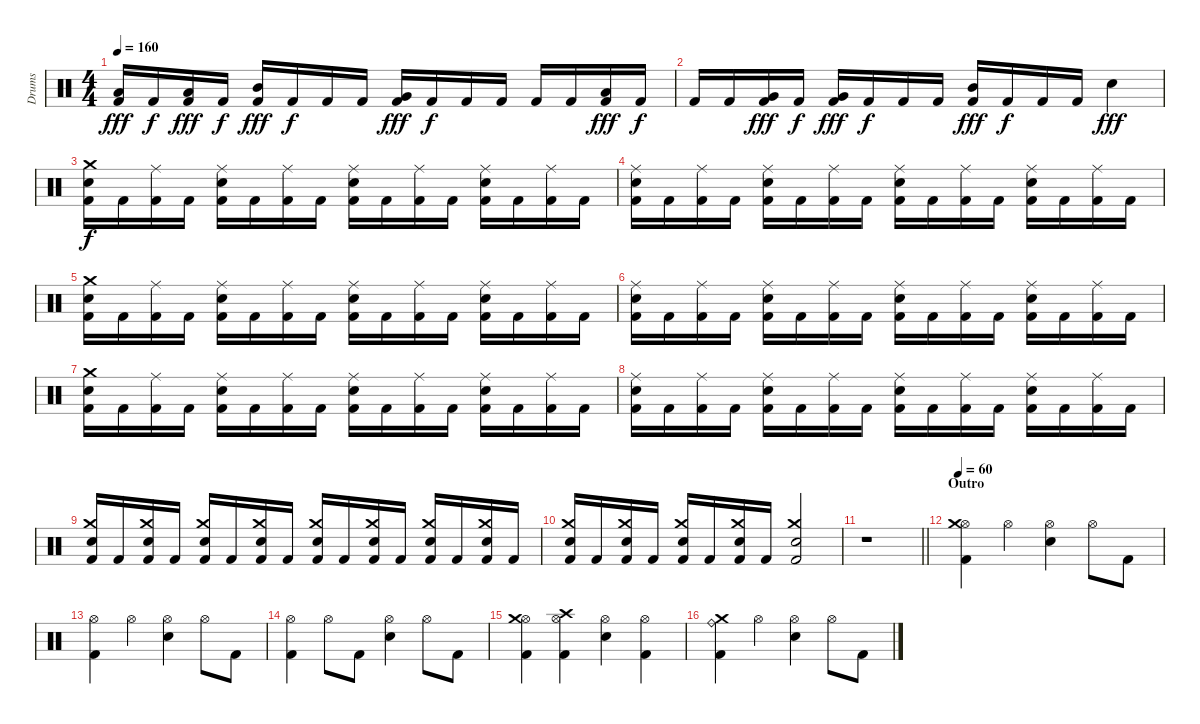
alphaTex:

\track ("Drums" "Drums") {instrument percussion}
\staff {score}
\articulation defaults
\ts (4 4)
\tempo 160
\clef neutral
\ks c
("Kick (hit) 2" "Low Tom (hit)").16{dy fff} "Kick (hit) 2".16{dy f} ("Kick (hit) 2" "Low Tom (hit)").16{dy fff} "Kick (hit) 2".16{dy f} ("Kick (hit) 2" "Mid Tom (hit)").16{dy fff} "Kick (hit) 2".16{dy f} "Kick (hit) 2".16 "Kick (hit) 2".16 ("Kick (hit) 2" "Very Low Tom (hit)").16{dy fff} "Kick (hit) 2".16{dy f} "Kick (hit) 2".16 "Kick (hit) 2".16 "Kick (hit) 2".16 "Kick (hit) 2".16 ("Kick (hit) 2" "Low Tom (hit)").16{dy fff} "Kick (hit) 2".16{dy f} |
"Kick (hit) 2".16 "Kick (hit) 2".16 ("Kick (hit) 2" "Very Low Tom (hit)").16{dy fff} "Kick (hit) 2".16{dy f} ("Kick (hit) 2" "Very Low Tom (hit)").16{dy fff} "Kick (hit) 2".16{dy f} "Kick (hit) 2".16 "Kick (hit) 2".16 ("Kick (hit) 2" "Mid Tom (hit)").16{dy fff} "Kick (hit) 2".16{dy f} "Kick (hit) 2".16 "Kick (hit) 2".16 "Electric Snare (hit)".4{dy fff} |
("Kick (hit) 2" "Electric Snare (hit)" "Crash medium (hit)").16{dy f} "Kick (hit) 2".16 ("Kick (hit) 2" "Ride (middle)").16 "Kick (hit) 2".16 ("Kick (hit) 2" "Electric Snare (hit)" "Ride (middle)").16 "Kick (hit) 2".16 ("Kick (hit) 2" "Ride (middle)").16 "Kick (hit) 2".16 ("Kick (hit) 2" "Electric Snare (hit)" "Ride (middle)").16 "Kick (hit) 2".16 ("Kick (hit) 2" "Ride (middle)").16 "Kick (hit) 2".16 ("Kick (hit) 2" "Electric Snare (hit)" "Ride (middle)").16 "Kick (hit) 2".16 ("Kick (hit) 2" "Ride (middle)").16 "Kick (hit) 2".16 |
("Kick (hit) 2" "Electric Snare (hit)" "Ride (middle)").16 "Kick (hit) 2".16 ("Kick (hit) 2" "Ride (middle)").16 "Kick (hit) 2".16 ("Kick (hit) 2" "Electric Snare (hit)" "Ride (middle)").16 "Kick (hit) 2".16 ("Kick (hit) 2" "Ride (middle)").16 "Kick (hit) 2".16 ("Kick (hit) 2" "Electric Snare (hit)" "Ride (middle)").16 "Kick (hit) 2".16 ("Kick (hit) 2" "Ride (middle)").16 "Kick (hit) 2".16 ("Kick (hit) 2" "Electric Snare (hit)" "Ride (middle)").16 "Kick (hit) 2".16 ("Kick (hit) 2" "Ride (middle)").16 "Kick (hit) 2".16 |
("Kick (hit) 2" "Electric Snare (hit)" "Crash medium (hit)").16 "Kick (hit) 2".16 ("Kick (hit) 2" "Ride (middle)").16 "Kick (hit) 2".16 ("Kick (hit) 2" "Electric Snare (hit)" "Ride (middle)").16 "Kick (hit) 2".16 ("Kick (hit) 2" "Ride (middle)").16 "Kick (hit) 2".16 ("Kick (hit) 2" "Electric Snare (hit)" "Ride (middle)").16 "Kick (hit) 2".16 ("Kick (hit) 2" "Ride (middle)").16 "Kick (hit) 2".16 ("Kick (hit) 2" "Electric Snare (hit)" "Ride (middle)").16 "Kick (hit) 2".16 ("Kick (hit) 2" "Ride (middle)").16 "Kick (hit) 2".16 |
("Kick (hit) 2" "Electric Snare (hit)" "Ride (middle)").16 "Kick (hit) 2".16 ("Kick (hit) 2" "Ride (middle)").16 "Kick (hit) 2".16 ("Kick (hit) 2" "Electric Snare (hit)" "Ride (middle)").16 "Kick (hit) 2".16 ("Kick (hit) 2" "Ride (middle)").16 "Kick (hit) 2".16 ("Kick (hit) 2" "Electric Snare (hit)" "Ride (middle)").16 "Kick (hit) 2".16 ("Kick (hit) 2" "Ride (middle)").16 "Kick (hit) 2".16 ("Kick (hit) 2" "Electric Snare (hit)" "Ride (middle)").16 "Kick (hit) 2".16 ("Kick (hit) 2" "Ride (middle)").16 "Kick (hit) 2".16 |
("Kick (hit) 2" "Electric Snare (hit)" "Crash medium (hit)").16 "Kick (hit) 2".16 ("Kick (hit) 2" "Ride (middle)").16 "Kick (hit) 2".16 ("Kick (hit) 2" "Electric Snare (hit)" "Ride (middle)").16 "Kick (hit) 2".16 ("Kick (hit) 2" "Ride (middle)").16 "Kick (hit) 2".16 ("Kick (hit) 2" "Electric Snare (hit)" "Ride (middle)").16 "Kick (hit) 2".16 ("Kick (hit) 2" "Ride (middle)").16 "Kick (hit) 2".16 ("Kick (hit) 2" "Electric Snare (hit)" "Ride (middle)").16 "Kick (hit) 2".16 ("Kick (hit) 2" "Ride (middle)").16 "Kick (hit) 2".16 |
("Kick (hit) 2" "Electric Snare (hit)" "Ride (middle)").16 "Kick (hit) 2".16 ("Kick (hit) 2" "Ride (middle)").16 "Kick (hit) 2".16 ("Kick (hit) 2" "Electric Snare (hit)" "Ride (middle)").16 "Kick (hit) 2".16 ("Kick (hit) 2" "Ride (middle)").16 "Kick (hit) 2".16 ("Kick (hit) 2" "Electric Snare (hit)" "Ride (middle)").16 "Kick (hit) 2".16 ("Kick (hit) 2" "Ride (middle)").16 "Kick (hit) 2".16 ("Kick (hit) 2" "Electric Snare (hit)" "Ride (middle)").16 "Kick (hit) 2".16 ("Kick (hit) 2" "Ride (middle)").16 "Kick (hit) 2".16 |
("Kick (hit) 2" "Snare (hit) 2" "Crash medium (hit)").16 "Kick (hit) 2".16 ("Kick (hit) 2" "Snare (hit) 2" "Crash medium (hit)").16 "Kick (hit) 2".16 ("Kick (hit) 2" "Snare (hit) 2" "Crash medium (hit)").16 "Kick (hit) 2".16 ("Kick (hit) 2" "Snare (hit) 2" "Crash medium (hit)").16 "Kick (hit) 2".16 ("Kick (hit) 2" "Snare (hit) 2" "Crash medium (hit)").16 "Kick (hit) 2".16 ("Kick (hit) 2" "Snare (hit) 2" "Crash medium (hit)").16 "Kick (hit) 2".16 ("Kick (hit) 2" "Snare (hit) 2" "Crash medium (hit)").16 "Kick (hit) 2".16 ("Kick (hit) 2" "Snare (hit) 2" "Crash medium (hit)").16 "Kick (hit) 2".16 |
("Kick (hit) 2" "Snare (hit) 2" "Crash medium (hit)").16 "Kick (hit) 2".16 ("Kick (hit) 2" "Snare (hit) 2" "Crash medium (hit)").16 "Kick (hit) 2".16 ("Kick (hit) 2" "Snare (hit) 2" "Crash medium (hit)").16 "Kick (hit) 2".16 ("Kick (hit) 2" "Snare (hit) 2" "Crash medium (hit)").16 "Kick (hit) 2".16 ("Kick (hit) 2" "Snare (hit) 2" "Crash medium (hit)").2 |
\barLineRight lightlight
r.1 |
\section ("" "Outro")
\tempo 60
("Kick (hit) 2" "Hi-Hat (open)" "Crash medium (hit)").4 "Hi-Hat (open)".4 ("Electric Snare (hit)" "Hi-Hat (open)").4 "Hi-Hat (open)".8 "Kick (hit) 2".8 |
("Kick (hit) 2" "Hi-Hat (open)").4 "Hi-Hat (open)".4 ("Electric Snare (hit)" "Hi-Hat (open)").4 "Hi-Hat (open)".8 "Kick (hit) 2".8 |
("Kick (hit) 2" "Hi-Hat (open)").4 "Hi-Hat (open)".8 "Kick (hit) 2".8 ("Electric Snare (hit)" "Hi-Hat (open)").4 "Hi-Hat (open)".8 "Kick (hit) 2".8 |
("Kick (hit) 2" "Hi-Hat (open)" "Crash medium (hit)").4 ("Kick (hit) 2" "Hi-Hat (open)" "Crash high (hit)").4 ("Electric Snare (hit)" "Hi-Hat (open)").4 ("Kick (hit) 2" "Hi-Hat (open)").4 |
("Kick (hit) 2" "Ride (bell)" "Crash medium (hit)").4 "Hi-Hat (open)".4 ("Electric Snare (hit)" "Hi-Hat (open)").4 "Hi-Hat (open)".8 "Kick (hit) 2".8
